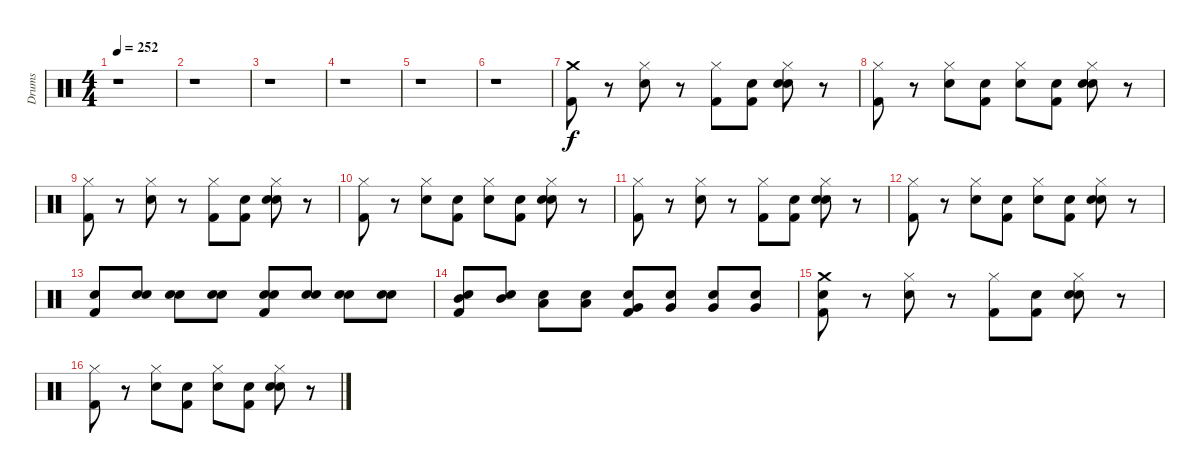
\track ("Drums" "Drums") {instrument percussion}
\staff {score}
\articulation defaults
\ts (4 4)
\tempo 252
\clef neutral
\ks c
r.1{dy f} |
r.1 |
r.1 |
r.1 |
r.1 |
r.1 |
("Crash medium (hit)" "Kick (hit) 2").8 r.8 ("Hi-Hat (closed)" "Electric Snare (hit)").8 r.8 ("Hi-Hat (closed)" "Kick (hit) 2").8 ("Snare (hit)" "Kick (hit) 2").8 ("Snare (hit)" "Hi-Hat (closed)" "Electric Snare (hit)").8 r.8 |
("Hi-Hat (closed)" "Kick (hit) 2").8 r.8 ("Hi-Hat (closed)" "Electric Snare (hit)").8 ("Snare (hit)" "Kick (hit) 2").8 ("Snare (hit)" "Hi-Hat (closed)").8 ("Snare (hit)" "Kick (hit) 2").8 ("Snare (hit)" "Hi-Hat (closed)" "Electric Snare (hit)").8 r.8 |
("Hi-Hat (closed)" "Kick (hit) 2").8 r.8 ("Hi-Hat (closed)" "Electric Snare (hit)").8 r.8 ("Hi-Hat (closed)" "Kick (hit) 2").8 ("Snare (hit)" "Kick (hit) 2").8 ("Snare (hit)" "Hi-Hat (closed)" "Electric Snare (hit)").8 r.8 |
("Hi-Hat (closed)" "Kick (hit) 2").8 r.8 ("Hi-Hat (closed)" "Electric Snare (hit)").8 ("Snare (hit)" "Kick (hit) 2").8 ("Snare (hit)" "Hi-Hat (closed)").8 ("Snare (hit)" "Kick (hit) 2").8 ("Snare (hit)" "Hi-Hat (closed)" "Electric Snare (hit)").8 r.8 |
("Hi-Hat (closed)" "Kick (hit) 2").8 r.8 ("Hi-Hat (closed)" "Electric Snare (hit)").8 r.8 ("Hi-Hat (closed)" "Kick (hit) 2").8 ("Snare (hit)" "Kick (hit) 2").8 ("Snare (hit)" "Hi-Hat (closed)" "Electric Snare (hit)").8 r.8 |
("Hi-Hat (closed)" "Kick (hit) 2").8 r.8 ("Hi-Hat (closed)" "Electric Snare (hit)").8 ("Snare (hit)" "Kick (hit) 2").8 ("Snare (hit)" "Hi-Hat (closed)").8 ("Snare (hit)" "Kick (hit) 2").8 ("Snare (hit)" "Hi-Hat (closed)" "Electric Snare (hit)").8 r.8 |
("Electric Snare (hit)" "Kick (hit) 2").8 ("Snare (hit)" "Electric Snare (hit)").8 ("Snare (hit)" "Electric Snare (hit)").8 ("Snare (hit)" "Electric Snare (hit)").8 ("Snare (hit)" "Electric Snare (hit)" "Kick (hit) 2").8 ("Snare (hit)" "Electric Snare (hit)").8 ("Snare (hit)" "Electric Snare (hit)").8 ("Snare (hit)" "Electric Snare (hit)").8 |
("Snare (hit)" "Kick (hit) 2" "Mid Tom (hit)").8 ("Snare (hit)" "Mid Tom (hit)").8 ("Snare (hit)" "Low Tom (hit)").8 ("Snare (hit)" "Low Tom (hit)").8 ("Snare (hit)" "Kick (hit) 2" "Very Low Tom (hit)").8 ("Snare (hit)" "Very Low Tom (hit)").8 ("Snare (hit)" "Very Low Tom (hit)").8 ("Snare (hit)" "Very Low Tom (hit)").8 |
("Snare (hit)" "Crash medium (hit)" "Kick (hit) 2").8 r.8 ("Hi-Hat (closed)" "Electric Snare (hit)").8 r.8 ("Hi-Hat (closed)" "Kick (hit) 2").8 ("Snare (hit)" "Kick (hit) 2").8 ("Snare (hit)" "Hi-Hat (closed)" "Electric Snare (hit)").8 r.8 |
("Hi-Hat (closed)" "Kick (hit) 2").8 r.8 ("Hi-Hat (closed)" "Electric Snare (hit)").8 ("Snare (hit)" "Kick (hit) 2").8 ("Snare (hit)" "Hi-Hat (closed)").8 ("Snare (hit)" "Kick (hit) 2").8 ("Snare (hit)" "Hi-Hat (closed)" "Electric Snare (hit)").8 r.8
